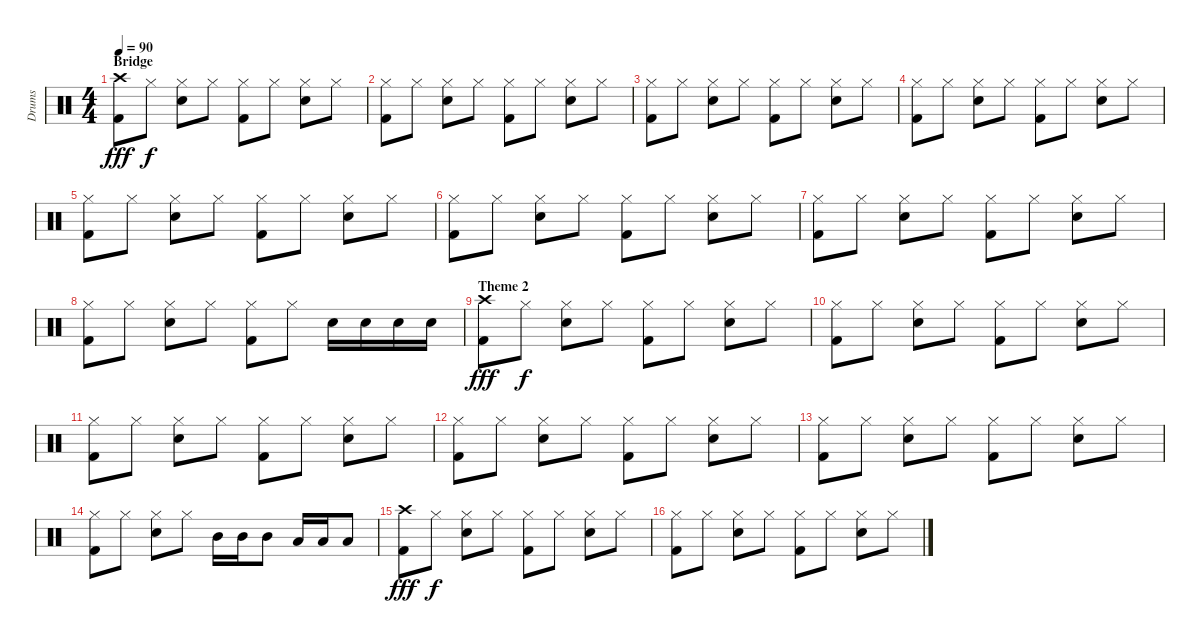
\track ("Drums" "Drums") {instrument percussion}
\staff {score}
\articulation defaults
\ts (4 4)
\section ("" "Bridge")
\tempo 90
\clef neutral
\ks c
("Crash high (hit)" "Kick (hit) 2").8{dy fff} "Hi-Hat (closed)".8{dy f} ("Hi-Hat (closed)" "Electric Snare (hit)").8 "Hi-Hat (closed)".8 ("Hi-Hat (closed)" "Kick (hit) 2").8 "Hi-Hat (closed)".8 ("Hi-Hat (closed)" "Electric Snare (hit)").8 "Hi-Hat (closed)".8 |
("Hi-Hat (closed)" "Kick (hit) 2").8 "Hi-Hat (closed)".8 ("Hi-Hat (closed)" "Electric Snare (hit)").8 "Hi-Hat (closed)".8 ("Hi-Hat (closed)" "Kick (hit) 2").8 "Hi-Hat (closed)".8 ("Hi-Hat (closed)" "Electric Snare (hit)").8 "Hi-Hat (closed)".8 |
("Hi-Hat (closed)" "Kick (hit) 2").8 "Hi-Hat (closed)".8 ("Hi-Hat (closed)" "Electric Snare (hit)").8 "Hi-Hat (closed)".8 ("Hi-Hat (closed)" "Kick (hit) 2").8 "Hi-Hat (closed)".8 ("Hi-Hat (closed)" "Electric Snare (hit)").8 "Hi-Hat (closed)".8 |
("Hi-Hat (closed)" "Kick (hit) 2").8 "Hi-Hat (closed)".8 ("Hi-Hat (closed)" "Electric Snare (hit)").8 "Hi-Hat (closed)".8 ("Hi-Hat (closed)" "Kick (hit) 2").8 "Hi-Hat (closed)".8 ("Hi-Hat (closed)" "Electric Snare (hit)").8 "Hi-Hat (closed)".8 |
("Hi-Hat (closed)" "Kick (hit) 2").8 "Hi-Hat (closed)".8 ("Hi-Hat (closed)" "Electric Snare (hit)").8 "Hi-Hat (closed)".8 ("Hi-Hat (closed)" "Kick (hit) 2").8 "Hi-Hat (closed)".8 ("Hi-Hat (closed)" "Electric Snare (hit)").8 "Hi-Hat (closed)".8 |
("Hi-Hat (closed)" "Kick (hit) 2").8 "Hi-Hat (closed)".8 ("Hi-Hat (closed)" "Electric Snare (hit)").8 "Hi-Hat (closed)".8 ("Hi-Hat (closed)" "Kick (hit) 2").8 "Hi-Hat (closed)".8 ("Hi-Hat (closed)" "Electric Snare (hit)").8 "Hi-Hat (closed)".8 |
("Hi-Hat (closed)" "Kick (hit) 2").8 "Hi-Hat (closed)".8 ("Hi-Hat (closed)" "Electric Snare (hit)").8 "Hi-Hat (closed)".8 ("Hi-Hat (closed)" "Kick (hit) 2").8 "Hi-Hat (closed)".8 ("Hi-Hat (closed)" "Electric Snare (hit)").8 "Hi-Hat (closed)".8 |
("Hi-Hat (closed)" "Kick (hit) 2").8 "Hi-Hat (closed)".8 ("Hi-Hat (closed)" "Electric Snare (hit)").8 "Hi-Hat (closed)".8 ("Hi-Hat (closed)" "Kick (hit) 2").8 "Hi-Hat (closed)".8 "Electric Snare (hit)".16 "Electric Snare (hit)".16 "Electric Snare (hit)".16 "Electric Snare (hit)".16 |
\section ("" "Theme 2")
("Crash high (hit)" "Kick (hit) 2").8{dy fff} "Hi-Hat (closed)".8{dy f} ("Hi-Hat (closed)" "Electric Snare (hit)").8 "Hi-Hat (closed)".8 ("Hi-Hat (closed)" "Kick (hit) 2").8 "Hi-Hat (closed)".8 ("Hi-Hat (closed)" "Electric Snare (hit)").8 "Hi-Hat (closed)".8 |
("Hi-Hat (closed)" "Kick (hit) 2").8 "Hi-Hat (closed)".8 ("Hi-Hat (closed)" "Electric Snare (hit)").8 "Hi-Hat (closed)".8 ("Hi-Hat (closed)" "Kick (hit) 2").8 "Hi-Hat (closed)".8 ("Hi-Hat (closed)" "Electric Snare (hit)").8 "Hi-Hat (closed)".8 |
("Hi-Hat (closed)" "Kick (hit) 2").8 "Hi-Hat (closed)".8 ("Hi-Hat (closed)" "Electric Snare (hit)").8 "Hi-Hat (closed)".8 ("Hi-Hat (closed)" "Kick (hit) 2").8 "Hi-Hat (closed)".8 ("Hi-Hat (closed)" "Electric Snare (hit)").8 "Hi-Hat (closed)".8 |
("Hi-Hat (closed)" "Kick (hit) 2").8 "Hi-Hat (closed)".8 ("Hi-Hat (closed)" "Electric Snare (hit)").8 "Hi-Hat (closed)".8 ("Hi-Hat (closed)" "Kick (hit) 2").8 "Hi-Hat (closed)".8 ("Hi-Hat (closed)" "Electric Snare (hit)").8 "Hi-Hat (closed)".8 |
("Hi-Hat (closed)" "Kick (hit) 2").8 "Hi-Hat (closed)".8 ("Hi-Hat (closed)" "Electric Snare (hit)").8 "Hi-Hat (closed)".8 ("Hi-Hat (closed)" "Kick (hit) 2").8 "Hi-Hat (closed)".8 ("Hi-Hat (closed)" "Electric Snare (hit)").8 "Hi-Hat (closed)".8 |
("Hi-Hat (closed)" "Kick (hit) 2").8 "Hi-Hat (closed)".8 ("Hi-Hat (closed)" "Electric Snare (hit)").8 "Hi-Hat (closed)".8 "Mid Tom (hit)".16 "Mid Tom (hit)".16 "Mid Tom (hit)".8 "Low Tom (hit)".16 "Low Tom (hit)".16 "Low Tom (hit)".8 |
("Crash high (hit)" "Kick (hit) 2").8{dy fff} "Hi-Hat (closed)".8{dy f} ("Hi-Hat (closed)" "Electric Snare (hit)").8 "Hi-Hat (closed)".8 ("Hi-Hat (closed)" "Kick (hit) 2").8 "Hi-Hat (closed)".8 ("Hi-Hat (closed)" "Electric Snare (hit)").8 "Hi-Hat (closed)".8 |
("Hi-Hat (closed)" "Kick (hit) 2").8 "Hi-Hat (closed)".8 ("Hi-Hat (closed)" "Electric Snare (hit)").8 "Hi-Hat (closed)".8 ("Hi-Hat (closed)" "Kick (hit) 2").8 "Hi-Hat (closed)".8 ("Hi-Hat (closed)" "Electric Snare (hit)").8 "Hi-Hat (closed)".8
